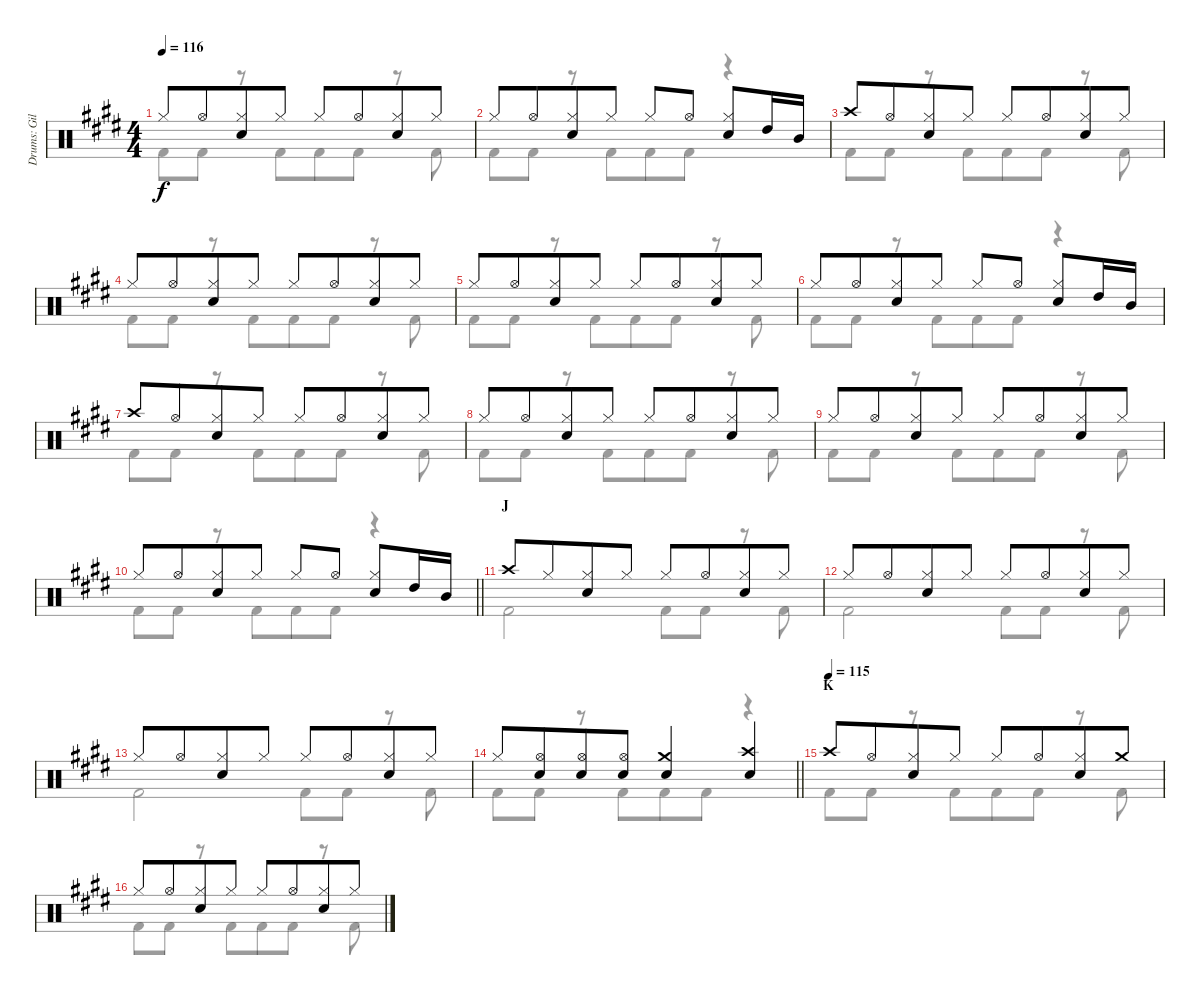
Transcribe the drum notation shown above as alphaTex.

\track ("Drums: Gil" "Drums: Gil") {instrument percussion}
\staff {score}
\articulation defaults
\voice
\ts (4 4)
\tempo 116
\clef neutral
\ks e "Hi-Hat (closed)".8{dy f} "Hi-Hat (open)".8{beam merge}
("Hi-Hat (closed)" "Snare (hit) 2").8 "Hi-Hat (closed)".8 "Hi-Hat (closed)".8 "Hi-Hat (open)".8{beam merge} ("Hi-Hat (closed)" "Snare (hit) 2").8 "Hi-Hat (closed)".8 |
"Hi-Hat (closed)".8 "Hi-Hat (open)".8{beam merge} ("Hi-Hat (closed)" "Snare (hit) 2").8 "Hi-Hat (closed)".8 "Hi-Hat (closed)".8 "Hi-Hat (open)".8 ("Hi-Hat (closed)" "Snare (hit) 2").8{beam merge} "High Tom (hit)".16 "Mid Tom (hit)".16 |
"Crash high (hit)".8 "Hi-Hat (open)".8{beam merge} ("Hi-Hat (closed)" "Snare (hit) 2").8 "Hi-Hat (closed)".8 "Hi-Hat (closed)".8 "Hi-Hat (open)".8{beam merge} ("Hi-Hat (closed)" "Snare (hit) 2").8 "Hi-Hat (closed)".8 |
"Hi-Hat (closed)".8 "Hi-Hat (open)".8{beam merge} ("Hi-Hat (closed)" "Snare (hit) 2").8 "Hi-Hat (closed)".8 "Hi-Hat (closed)".8 "Hi-Hat (open)".8{beam merge} ("Hi-Hat (closed)" "Snare (hit) 2").8 "Hi-Hat (closed)".8 |
"Hi-Hat (closed)".8 "Hi-Hat (open)".8{beam merge} ("Hi-Hat (closed)" "Snare (hit) 2").8 "Hi-Hat (closed)".8 "Hi-Hat (closed)".8 "Hi-Hat (open)".8{beam merge} ("Hi-Hat (closed)" "Snare (hit) 2").8 "Hi-Hat (closed)".8 |
"Hi-Hat (closed)".8 "Hi-Hat (open)".8{beam merge} ("Hi-Hat (closed)" "Snare (hit) 2").8 "Hi-Hat (closed)".8 "Hi-Hat (closed)".8 "Hi-Hat (open)".8 ("Hi-Hat (closed)" "Snare (hit) 2").8{beam merge} "High Tom (hit)".16 "Mid Tom (hit)".16 |
"Crash high (hit)".8 "Hi-Hat (open)".8{beam merge} ("Hi-Hat (closed)" "Snare (hit) 2").8 "Hi-Hat (closed)".8 "Hi-Hat (closed)".8 "Hi-Hat (open)".8{beam merge} ("Hi-Hat (closed)" "Snare (hit) 2").8 "Hi-Hat (closed)".8 |
"Hi-Hat (closed)".8 "Hi-Hat (open)".8{beam merge} ("Hi-Hat (closed)" "Snare (hit) 2").8 "Hi-Hat (closed)".8 "Hi-Hat (closed)".8 "Hi-Hat (open)".8{beam merge} ("Hi-Hat (closed)" "Snare (hit) 2").8 "Hi-Hat (closed)".8 |
"Hi-Hat (closed)".8 "Hi-Hat (open)".8{beam merge} ("Hi-Hat (closed)" "Snare (hit) 2").8 "Hi-Hat (closed)".8 "Hi-Hat (closed)".8 "Hi-Hat (open)".8{beam merge} ("Hi-Hat (closed)" "Snare (hit) 2").8 "Hi-Hat (closed)".8 |
\barLineRight lightlight "Hi-Hat (closed)".8 "Hi-Hat (open)".8{beam merge}
("Hi-Hat (closed)" "Snare (hit) 2").8 "Hi-Hat (closed)".8 "Hi-Hat (closed)".8 "Hi-Hat (open)".8 ("Hi-Hat (closed)" "Snare (hit) 2").8{beam merge} "High Tom (hit)".16 "Mid Tom (hit)".16 |
\section ("" "J")
"Crash high (hit)".8 "Hi-Hat (closed)".8{beam merge} ("Hi-Hat (closed)" "Snare (hit) 2").8 "Hi-Hat (closed)".8 "Hi-Hat (closed)".8 "Hi-Hat (open)".8{beam merge} ("Hi-Hat (closed)" "Snare (hit) 2").8 "Hi-Hat (closed)".8 |
"Hi-Hat (closed)".8 "Hi-Hat (open)".8{beam merge} ("Hi-Hat (closed)" "Snare (hit) 2").8 "Hi-Hat (closed)".8 "Hi-Hat (closed)".8 "Hi-Hat (open)".8{beam merge} ("Hi-Hat (closed)" "Snare (hit) 2").8 "Hi-Hat (closed)".8 |
"Hi-Hat (closed)".8 "Hi-Hat (open)".8{beam merge} ("Hi-Hat (closed)" "Snare (hit) 2").8 "Hi-Hat (closed)".8 "Hi-Hat (closed)".8 "Hi-Hat (open)".8{beam merge} ("Hi-Hat (closed)" "Snare (hit) 2").8 "Hi-Hat (closed)".8 |
\barLineRight lightlight "Hi-Hat (closed)".8
("Hi-Hat (open)" "Snare (hit) 2").8{beam merge} ("Hi-Hat (open)" "Snare (hit) 2").8 ("Hi-Hat (open)" "Snare (hit) 2").8 ("Crash medium (hit)" "Snare (hit) 2").4 ("Crash high (hit)" "Snare (hit) 2").4 |
\section ("" "K")
\tempo (115)
"Crash high (hit)".8 "Hi-Hat (open)".8{beam merge} ("Hi-Hat (closed)" "Snare (hit) 2").8 "Hi-Hat (closed)".8 "Hi-Hat (closed)".8 "Hi-Hat (open)".8{beam merge} ("Hi-Hat (closed)" "Snare (hit) 2").8 "Crash medium (hit)".8 |
"Hi-Hat (closed)".8 "Hi-Hat (open)".8{beam merge} ("Hi-Hat (closed)" "Snare (hit) 2").8 "Hi-Hat (closed)".8 "Hi-Hat (closed)".8 "Hi-Hat (open)".8{beam merge} ("Hi-Hat (closed)" "Snare (hit) 2").8 "Hi-Hat (closed)".8
\voice
\clef neutral
\ottava regular
\simile none
\ks e "Kick (hit) 2".8{dy f} "Kick (hit) 2".8
r.8 "Kick (hit) 2".8{beam merge} "Kick (hit) 2".8 "Kick (hit) 2".8 r.8 "Kick (hit) 2".8 |
"Kick (hit) 2".8 "Kick (hit) 2".8 r.8 "Kick (hit) 2".8{beam merge} "Kick (hit) 2".8 "Kick (hit) 2".8 r.4 |
"Kick (hit) 2".8 "Kick (hit) 2".8 r.8 "Kick (hit) 2".8{beam merge} "Kick (hit) 2".8 "Kick (hit) 2".8 r.8 "Kick (hit) 2".8 |
"Kick (hit) 2".8 "Kick (hit) 2".8 r.8 "Kick (hit) 2".8{beam merge} "Kick (hit) 2".8 "Kick (hit) 2".8 r.8 "Kick (hit) 2".8 |
"Kick (hit) 2".8 "Kick (hit) 2".8 r.8 "Kick (hit) 2".8{beam merge} "Kick (hit) 2".8 "Kick (hit) 2".8 r.8 "Kick (hit) 2".8 |
"Kick (hit) 2".8 "Kick (hit) 2".8 r.8 "Kick (hit) 2".8{beam merge} "Kick (hit) 2".8 "Kick (hit) 2".8 r.4 |
"Kick (hit) 2".8 "Kick (hit) 2".8 r.8 "Kick (hit) 2".8{beam merge} "Kick (hit) 2".8 "Kick (hit) 2".8 r.8 "Kick (hit) 2".8 |
"Kick (hit) 2".8 "Kick (hit) 2".8 r.8 "Kick (hit) 2".8{beam merge} "Kick (hit) 2".8 "Kick (hit) 2".8 r.8 "Kick (hit) 2".8 |
"Kick (hit) 2".8 "Kick (hit) 2".8 r.8 "Kick (hit) 2".8{beam merge} "Kick (hit) 2".8 "Kick (hit) 2".8 r.8 "Kick (hit) 2".8 |
\barLineRight lightlight "Kick (hit) 2".8 "Kick (hit) 2".8
r.8 "Kick (hit) 2".8{beam merge} "Kick (hit) 2".8 "Kick (hit) 2".8 r.4 |
"Kick (hit) 2".2{beam merge} "Kick (hit) 2".8 "Kick (hit) 2".8 r.8 "Kick (hit) 2".8 |
"Kick (hit) 2".2{beam merge} "Kick (hit) 2".8 "Kick (hit) 2".8 r.8 "Kick (hit) 2".8 |
"Kick (hit) 2".2{beam merge} "Kick (hit) 2".8 "Kick (hit) 2".8 r.8 "Kick (hit) 2".8 |
\barLineRight lightlight "Kick (hit) 2".8 "Kick (hit) 2".8
r.8 "Kick (hit) 2".8{beam merge} "Kick (hit) 2".8 "Kick (hit) 2".8 r.4 |
"Kick (hit) 2".8 "Kick (hit) 2".8 r.8 "Kick (hit) 2".8{beam merge} "Kick (hit) 2".8 "Kick (hit) 2".8 r.8 "Kick (hit) 2".8 |
"Kick (hit) 2".8 "Kick (hit) 2".8 r.8 "Kick (hit) 2".8{beam merge} "Kick (hit) 2".8 "Kick (hit) 2".8 r.8 "Kick (hit) 2".8
